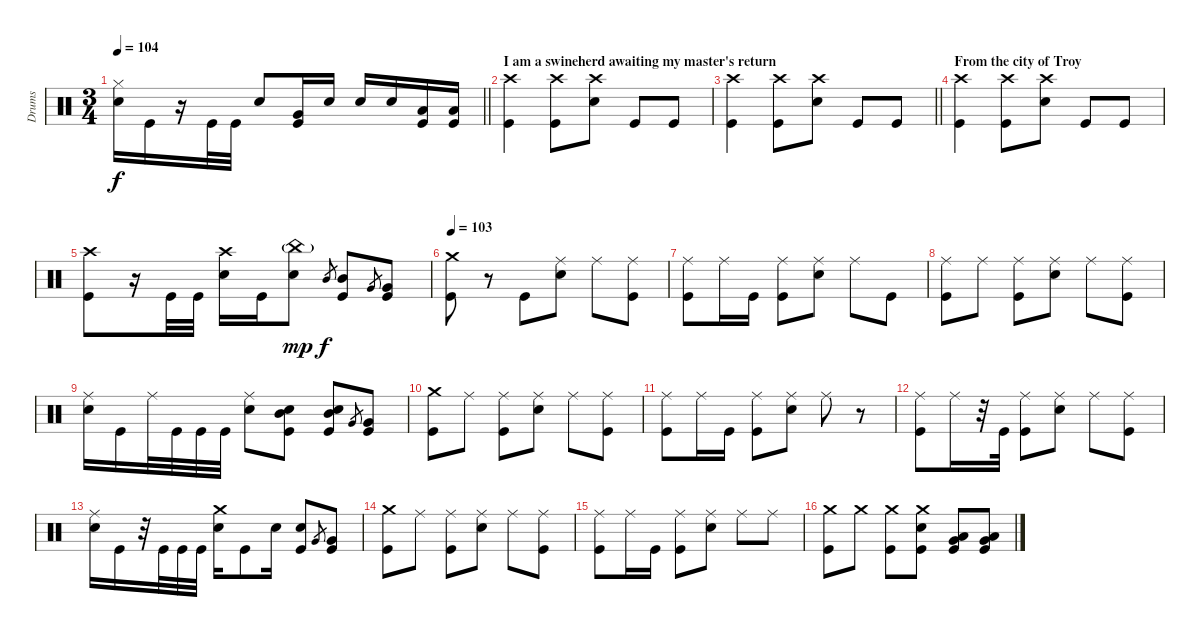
\track ("Drums" "Drums") {instrument percussion}
\staff {score}
\articulation defaults
\ts (3 4)
\tempo 104
\clef neutral
\barLineRight lightlight
\ks c
("Hi-Hat (closed)" "Snare (hit) 2").16{dy f} "Kick (hit)".16 r.16 "Kick (hit)".32 "Kick (hit)".32 "Snare (hit) 2".8 ("Very Low Tom (hit)" "Kick (hit)").16 "Snare (hit) 2".16 "Snare (hit) 2".16 "Snare (hit) 2".16 ("Low Tom (hit)" "Kick (hit)").16 ("Low Tom (hit)" "Kick (hit)").16 |
\section ("" "I am a swineherd awaiting my master's return")
("Crash high (hit)" "Kick (hit)").4 ("Crash high (hit)" "Kick (hit)").8 ("Crash high (hit)" "Snare (hit) 2").8 "Kick (hit)".8 "Kick (hit)".8 |
\barLineRight lightlight
("Crash high (hit)" "Kick (hit)").4 ("Crash high (hit)" "Kick (hit)").8 ("Crash high (hit)" "Snare (hit) 2").8 "Kick (hit)".8 "Kick (hit)".8 |
\section ("" "From the city of Troy")
("Crash high (hit)" "Kick (hit)").4 ("Crash high (hit)" "Kick (hit)").8 ("Crash high (hit)" "Snare (hit) 2").8 "Kick (hit)".8 "Kick (hit)".8 |
("Crash high (hit)" "Kick (hit)").8 r.16 "Kick (hit)".32 "Kick (hit)".32 ("Crash high (hit)" "Snare (hit) 2").16 "Kick (hit)".16 ("China (hit)"{g} "Snare (hit) 2").8{dy mp} "Mid Tom (hit)".8{gr dy f} ("Mid Tom (hit)" "Kick (hit)").8 "Very Low Tom (hit)".8{gr} ("Very Low Tom (hit)" "Kick (hit)").8 |
\tempo 103
("Crash medium (hit)" "Kick (hit)").8 r.8 "Kick (hit)".8 ("Ride (middle)" "Snare (hit) 2").8 "Ride (middle)".8 ("Ride (middle)" "Kick (hit)").8 |
("Ride (middle)" "Kick (hit)").8 "Ride (middle)".16 "Kick (hit)".16 ("Ride (middle)" "Kick (hit)").8 ("Ride (middle)" "Snare (hit) 2").8 "Ride (middle)".8 "Kick (hit)".8 |
("Ride (middle)" "Kick (hit)").8 "Ride (middle)".8 ("Ride (middle)" "Kick (hit)").8 ("Ride (middle)" "Snare (hit) 2").8 "Ride (middle)".8 ("Ride (middle)" "Kick (hit)").8 |
("Ride (middle)" "Snare (hit) 2").16 "Kick (hit)".16 "Ride (middle)".32 "Kick (hit)".32 "Kick (hit)".32 "Kick (hit)".32 ("Ride (middle)" "Snare (hit) 2").8 ("Snare (hit) 2" "Mid Tom (hit)" "Kick (hit)").8 ("Snare (hit) 2" "Mid Tom (hit)" "Kick (hit)").8 "Very Low Tom (hit)".8{gr} ("Very Low Tom (hit)" "Kick (hit)").8 |
("Crash medium (hit)" "Kick (hit)").8 "Ride (middle)".8 ("Ride (middle)" "Kick (hit)").8 ("Ride (middle)" "Snare (hit) 2").8 "Ride (middle)".8 ("Ride (middle)" "Kick (hit)").8 |
("Ride (middle)" "Kick (hit)").8 "Ride (middle)".16 "Kick (hit)".16 ("Ride (middle)" "Kick (hit)").8 ("Ride (middle)" "Snare (hit) 2").8 "Ride (middle)".8 r.8 |
("Ride (middle)" "Kick (hit)").8 "Ride (middle)".16 r.32 "Kick (hit)".32 ("Ride (middle)" "Kick (hit)").8 ("Ride (middle)" "Snare (hit) 2").8 "Ride (middle)".8 ("Ride (middle)" "Kick (hit)").8 |
("Ride (middle)" "Snare (hit) 2").16 "Kick (hit)".16 r.32 "Kick (hit)".32 "Kick (hit)".32 "Kick (hit)".32 ("Crash medium (hit)" "Snare (hit) 2").16 "Kick (hit)".8 "Snare (hit) 2".16 ("Snare (hit) 2" "Kick (hit)").8 "Very Low Tom (hit)".8{gr} ("Very Low Tom (hit)" "Kick (hit)").8 |
("Crash medium (hit)" "Kick (hit)").8 "Ride (middle)".8 ("Ride (middle)" "Kick (hit)").8 ("Ride (middle)" "Snare (hit) 2").8 "Ride (middle)".8 ("Ride (middle)" "Kick (hit)").8 |
("Ride (middle)" "Kick (hit)").8 "Ride (middle)".16 "Kick (hit)".16 ("Ride (middle)" "Kick (hit)").8 ("Ride (middle)" "Snare (hit) 2").8 "Ride (middle)".8 "Ride (middle)".8 |
("Crash medium (hit)" "Kick (hit)").8 "Crash medium (hit)".8 ("Crash medium (hit)" "Kick (hit)").8 ("Crash medium (hit)" "Snare (hit) 2" "Kick (hit)").8 ("Low Tom (hit)" "Very Low Tom (hit)" "Kick (hit)").8 ("Low Tom (hit)" "Very Low Tom (hit)" "Kick (hit)").8
